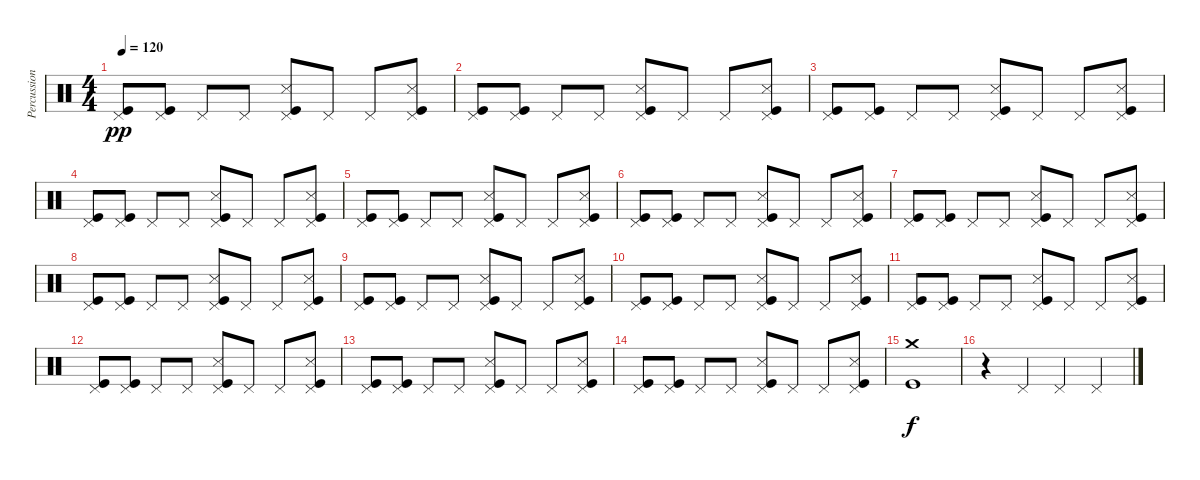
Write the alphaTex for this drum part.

\track ("Percussions" "Percussion") {instrument percussion}
\staff {score}
\articulation defaults
\ts (4 4)
\tempo 120
\clef neutral
\ks c
("Kick (hit)" "Pedal Hi-Hat (hit)").8{dy pp} ("Kick (hit)" "Pedal Hi-Hat (hit)").8 "Pedal Hi-Hat (hit)".8 "Pedal Hi-Hat (hit)".8 ("Snare (side stick) 3" "Kick (hit)" "Pedal Hi-Hat (hit)").8 "Pedal Hi-Hat (hit)".8 "Pedal Hi-Hat (hit)".8 ("Snare (side stick) 3" "Kick (hit)" "Pedal Hi-Hat (hit)").8 |
("Kick (hit)" "Pedal Hi-Hat (hit)").8 ("Kick (hit)" "Pedal Hi-Hat (hit)").8 "Pedal Hi-Hat (hit)".8 "Pedal Hi-Hat (hit)".8 ("Snare (side stick) 3" "Kick (hit)" "Pedal Hi-Hat (hit)").8 "Pedal Hi-Hat (hit)".8 "Pedal Hi-Hat (hit)".8 ("Snare (side stick) 3" "Kick (hit)" "Pedal Hi-Hat (hit)").8 |
("Kick (hit)" "Pedal Hi-Hat (hit)").8 ("Kick (hit)" "Pedal Hi-Hat (hit)").8 "Pedal Hi-Hat (hit)".8 "Pedal Hi-Hat (hit)".8 ("Snare (side stick) 3" "Kick (hit)" "Pedal Hi-Hat (hit)").8 "Pedal Hi-Hat (hit)".8 "Pedal Hi-Hat (hit)".8 ("Snare (side stick) 3" "Kick (hit)" "Pedal Hi-Hat (hit)").8 |
("Kick (hit)" "Pedal Hi-Hat (hit)").8 ("Kick (hit)" "Pedal Hi-Hat (hit)").8 "Pedal Hi-Hat (hit)".8 "Pedal Hi-Hat (hit)".8 ("Snare (side stick) 3" "Kick (hit)" "Pedal Hi-Hat (hit)").8 "Pedal Hi-Hat (hit)".8 "Pedal Hi-Hat (hit)".8 ("Snare (side stick) 3" "Kick (hit)" "Pedal Hi-Hat (hit)").8 |
("Kick (hit)" "Pedal Hi-Hat (hit)").8 ("Kick (hit)" "Pedal Hi-Hat (hit)").8 "Pedal Hi-Hat (hit)".8 "Pedal Hi-Hat (hit)".8 ("Snare (side stick) 3" "Kick (hit)" "Pedal Hi-Hat (hit)").8 "Pedal Hi-Hat (hit)".8 "Pedal Hi-Hat (hit)".8 ("Snare (side stick) 3" "Kick (hit)" "Pedal Hi-Hat (hit)").8 |
("Kick (hit)" "Pedal Hi-Hat (hit)").8 ("Kick (hit)" "Pedal Hi-Hat (hit)").8 "Pedal Hi-Hat (hit)".8 "Pedal Hi-Hat (hit)".8 ("Snare (side stick) 3" "Kick (hit)" "Pedal Hi-Hat (hit)").8 "Pedal Hi-Hat (hit)".8 "Pedal Hi-Hat (hit)".8 ("Snare (side stick) 3" "Kick (hit)" "Pedal Hi-Hat (hit)").8 |
("Kick (hit)" "Pedal Hi-Hat (hit)").8 ("Kick (hit)" "Pedal Hi-Hat (hit)").8 "Pedal Hi-Hat (hit)".8 "Pedal Hi-Hat (hit)".8 ("Snare (side stick) 3" "Kick (hit)" "Pedal Hi-Hat (hit)").8 "Pedal Hi-Hat (hit)".8 "Pedal Hi-Hat (hit)".8 ("Snare (side stick) 3" "Kick (hit)" "Pedal Hi-Hat (hit)").8 |
("Kick (hit)" "Pedal Hi-Hat (hit)").8 ("Kick (hit)" "Pedal Hi-Hat (hit)").8 "Pedal Hi-Hat (hit)".8 "Pedal Hi-Hat (hit)".8 ("Snare (side stick) 3" "Kick (hit)" "Pedal Hi-Hat (hit)").8 "Pedal Hi-Hat (hit)".8 "Pedal Hi-Hat (hit)".8 ("Snare (side stick) 3" "Kick (hit)" "Pedal Hi-Hat (hit)").8 |
("Kick (hit)" "Pedal Hi-Hat (hit)").8 ("Kick (hit)" "Pedal Hi-Hat (hit)").8 "Pedal Hi-Hat (hit)".8 "Pedal Hi-Hat (hit)".8 ("Snare (side stick) 3" "Kick (hit)" "Pedal Hi-Hat (hit)").8 "Pedal Hi-Hat (hit)".8 "Pedal Hi-Hat (hit)".8 ("Snare (side stick) 3" "Kick (hit)" "Pedal Hi-Hat (hit)").8 |
("Kick (hit)" "Pedal Hi-Hat (hit)").8 ("Kick (hit)" "Pedal Hi-Hat (hit)").8 "Pedal Hi-Hat (hit)".8 "Pedal Hi-Hat (hit)".8 ("Snare (side stick) 3" "Kick (hit)" "Pedal Hi-Hat (hit)").8 "Pedal Hi-Hat (hit)".8 "Pedal Hi-Hat (hit)".8 ("Snare (side stick) 3" "Kick (hit)" "Pedal Hi-Hat (hit)").8 |
("Kick (hit)" "Pedal Hi-Hat (hit)").8 ("Kick (hit)" "Pedal Hi-Hat (hit)").8 "Pedal Hi-Hat (hit)".8 "Pedal Hi-Hat (hit)".8 ("Snare (side stick) 3" "Kick (hit)" "Pedal Hi-Hat (hit)").8 "Pedal Hi-Hat (hit)".8 "Pedal Hi-Hat (hit)".8 ("Snare (side stick) 3" "Kick (hit)" "Pedal Hi-Hat (hit)").8 |
("Kick (hit)" "Pedal Hi-Hat (hit)").8 ("Kick (hit)" "Pedal Hi-Hat (hit)").8 "Pedal Hi-Hat (hit)".8 "Pedal Hi-Hat (hit)".8 ("Snare (side stick) 3" "Kick (hit)" "Pedal Hi-Hat (hit)").8 "Pedal Hi-Hat (hit)".8 "Pedal Hi-Hat (hit)".8 ("Snare (side stick) 3" "Kick (hit)" "Pedal Hi-Hat (hit)").8 |
("Kick (hit)" "Pedal Hi-Hat (hit)").8 ("Kick (hit)" "Pedal Hi-Hat (hit)").8 "Pedal Hi-Hat (hit)".8 "Pedal Hi-Hat (hit)".8 ("Snare (side stick) 3" "Kick (hit)" "Pedal Hi-Hat (hit)").8 "Pedal Hi-Hat (hit)".8 "Pedal Hi-Hat (hit)".8 ("Snare (side stick) 3" "Kick (hit)" "Pedal Hi-Hat (hit)").8 |
("Kick (hit)" "Pedal Hi-Hat (hit)").8 ("Kick (hit)" "Pedal Hi-Hat (hit)").8 "Pedal Hi-Hat (hit)".8 "Pedal Hi-Hat (hit)".8 ("Snare (side stick) 3" "Kick (hit)" "Pedal Hi-Hat (hit)").8 "Pedal Hi-Hat (hit)".8 "Pedal Hi-Hat (hit)".8 ("Snare (side stick) 3" "Kick (hit)" "Pedal Hi-Hat (hit)").8 |
("Crash medium (hit)" "Kick (hit)").1{dy f} |
r.4 "Pedal Hi-Hat (hit)".4 "Pedal Hi-Hat (hit)".4 "Pedal Hi-Hat (hit)".4
